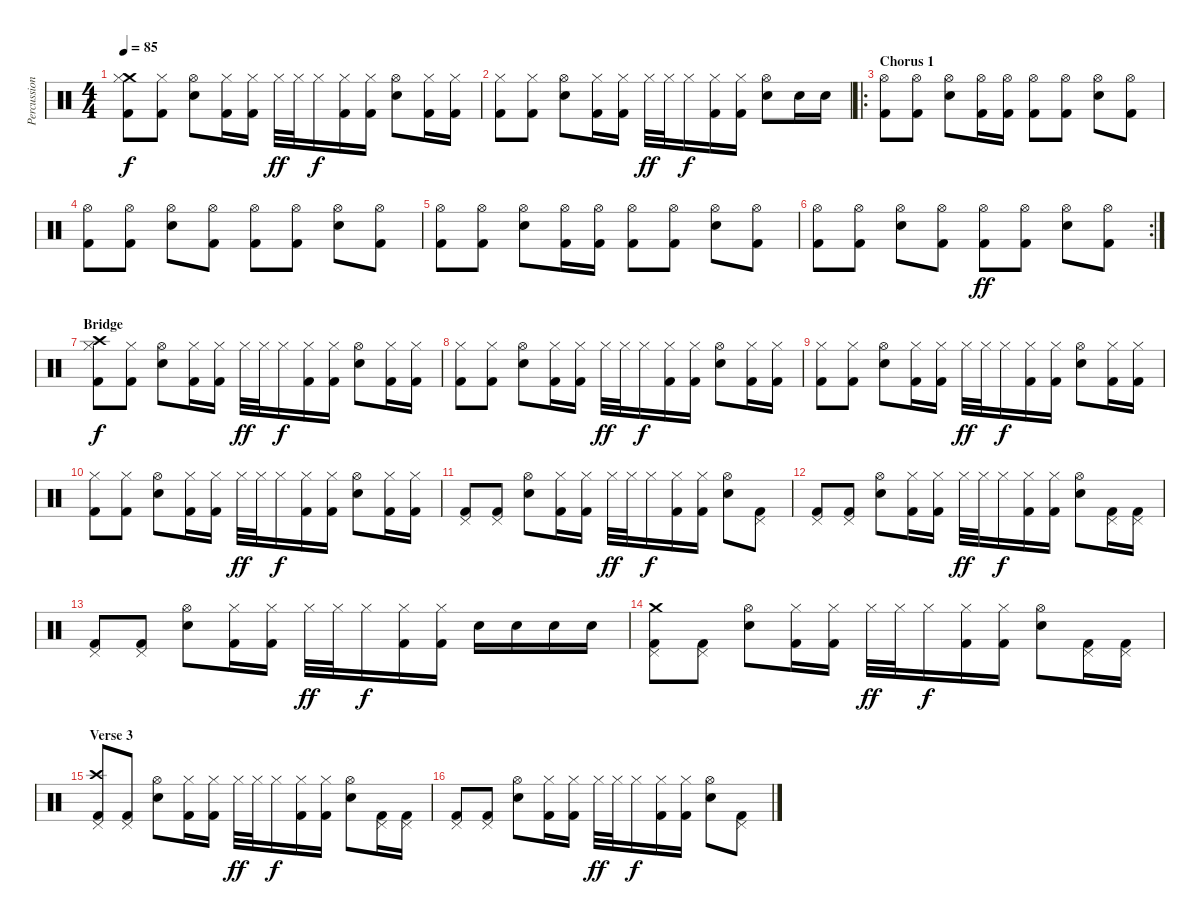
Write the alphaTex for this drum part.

\track ("Percussion" "Percussion") {instrument percussion}
\staff {score}
\articulation defaults
\ts (4 4)
\tempo 85
\clef neutral
\ks c
("Crash medium (hit)" "Hi-Hat (closed)" "Kick (hit) 2").8{dy f} ("Hi-Hat (closed)" "Kick (hit) 2").8 ("Hi-Hat (open)" "Electric Snare (hit)").8 ("Hi-Hat (closed)" "Kick (hit) 2").16 ("Hi-Hat (closed)" "Kick (hit) 2").16 "Hi-Hat (closed)".32{dy ff} "Hi-Hat (closed)".32 "Hi-Hat (closed)".16{dy f} ("Hi-Hat (closed)" "Kick (hit) 2").16 ("Hi-Hat (closed)" "Kick (hit) 2").16 ("Hi-Hat (open)" "Electric Snare (hit)").8 ("Hi-Hat (closed)" "Kick (hit) 2").16 ("Hi-Hat (closed)" "Kick (hit) 2").16 |
("Hi-Hat (closed)" "Kick (hit) 2").8 ("Hi-Hat (closed)" "Kick (hit) 2").8 ("Hi-Hat (open)" "Electric Snare (hit)").8 ("Hi-Hat (closed)" "Kick (hit) 2").16 ("Hi-Hat (closed)" "Kick (hit) 2").16 "Hi-Hat (closed)".32{dy ff} "Hi-Hat (closed)".32 "Hi-Hat (closed)".16{dy f} ("Hi-Hat (closed)" "Kick (hit) 2").16 ("Hi-Hat (closed)" "Kick (hit) 2").16 ("Hi-Hat (open)" "Electric Snare (hit)").8 "Electric Snare (hit)".16 "Electric Snare (hit)".16 |
\ro
\section ("" "Chorus 1")
("Hi-Hat (open)" "Kick (hit) 2").8 ("Hi-Hat (open)" "Kick (hit) 2").8 ("Hi-Hat (open)" "Electric Snare (hit)").8 ("Hi-Hat (open)" "Kick (hit) 2").16 ("Hi-Hat (open)" "Kick (hit) 2").16 ("Hi-Hat (open)" "Kick (hit) 2").8 ("Hi-Hat (open)" "Kick (hit) 2").8 ("Hi-Hat (open)" "Electric Snare (hit)").8 ("Hi-Hat (open)" "Kick (hit) 2").8 |
("Hi-Hat (open)" "Kick (hit) 2").8 ("Hi-Hat (open)" "Kick (hit) 2").8 ("Hi-Hat (open)" "Electric Snare (hit)").8 ("Hi-Hat (open)" "Kick (hit) 2").8 ("Hi-Hat (open)" "Kick (hit) 2").8 ("Hi-Hat (open)" "Kick (hit) 2").8 ("Hi-Hat (open)" "Electric Snare (hit)").8 ("Hi-Hat (open)" "Kick (hit) 2").8 |
("Hi-Hat (open)" "Kick (hit) 2").8 ("Hi-Hat (open)" "Kick (hit) 2").8 ("Hi-Hat (open)" "Electric Snare (hit)").8 ("Hi-Hat (open)" "Kick (hit) 2").16 ("Hi-Hat (open)" "Kick (hit) 2").16 ("Hi-Hat (open)" "Kick (hit) 2").8 ("Hi-Hat (open)" "Kick (hit) 2").8 ("Hi-Hat (open)" "Electric Snare (hit)").8 ("Hi-Hat (open)" "Kick (hit) 2").8 |
\rc 2
("Hi-Hat (open)" "Kick (hit) 2").8 ("Hi-Hat (open)" "Kick (hit) 2").8 ("Hi-Hat (open)" "Electric Snare (hit)").8 ("Hi-Hat (open)" "Kick (hit) 2").8 ("Hi-Hat (open)" "Kick (hit) 2").8{dy ff} ("Hi-Hat (open)" "Kick (hit) 2").8 ("Hi-Hat (open)" "Electric Snare (hit)").8 ("Hi-Hat (open)" "Kick (hit) 2").8 |
\section ("" "Bridge")
("Crash high (hit)" "Hi-Hat (closed)" "Kick (hit) 2").8{dy f} ("Hi-Hat (closed)" "Kick (hit) 2").8 ("Hi-Hat (open)" "Electric Snare (hit)").8 ("Hi-Hat (closed)" "Kick (hit) 2").16 ("Hi-Hat (closed)" "Kick (hit) 2").16 "Hi-Hat (closed)".32{dy ff} "Hi-Hat (closed)".32 "Hi-Hat (closed)".16{dy f} ("Hi-Hat (closed)" "Kick (hit) 2").16 ("Hi-Hat (closed)" "Kick (hit) 2").16 ("Hi-Hat (open)" "Electric Snare (hit)").8 ("Hi-Hat (closed)" "Kick (hit) 2").16 ("Hi-Hat (closed)" "Kick (hit) 2").16 |
("Hi-Hat (closed)" "Kick (hit) 2").8 ("Hi-Hat (closed)" "Kick (hit) 2").8 ("Hi-Hat (open)" "Electric Snare (hit)").8 ("Hi-Hat (closed)" "Kick (hit) 2").16 ("Hi-Hat (closed)" "Kick (hit) 2").16 "Hi-Hat (closed)".32{dy ff} "Hi-Hat (closed)".32 "Hi-Hat (closed)".16{dy f} ("Hi-Hat (closed)" "Kick (hit) 2").16 ("Hi-Hat (closed)" "Kick (hit) 2").16 ("Hi-Hat (open)" "Electric Snare (hit)").8 ("Hi-Hat (closed)" "Kick (hit) 2").16 ("Hi-Hat (closed)" "Kick (hit) 2").16 |
("Hi-Hat (closed)" "Kick (hit) 2").8 ("Hi-Hat (closed)" "Kick (hit) 2").8 ("Hi-Hat (open)" "Electric Snare (hit)").8 ("Hi-Hat (closed)" "Kick (hit) 2").16 ("Hi-Hat (closed)" "Kick (hit) 2").16 "Hi-Hat (closed)".32{dy ff} "Hi-Hat (closed)".32 "Hi-Hat (closed)".16{dy f} ("Hi-Hat (closed)" "Kick (hit) 2").16 ("Hi-Hat (closed)" "Kick (hit) 2").16 ("Hi-Hat (open)" "Electric Snare (hit)").8 ("Hi-Hat (closed)" "Kick (hit) 2").16 ("Hi-Hat (closed)" "Kick (hit) 2").16 |
("Hi-Hat (closed)" "Kick (hit) 2").8 ("Hi-Hat (closed)" "Kick (hit) 2").8 ("Hi-Hat (open)" "Electric Snare (hit)").8 ("Hi-Hat (closed)" "Kick (hit) 2").16 ("Hi-Hat (closed)" "Kick (hit) 2").16 "Hi-Hat (closed)".32{dy ff} "Hi-Hat (closed)".32 "Hi-Hat (closed)".16{dy f} ("Hi-Hat (closed)" "Kick (hit) 2").16 ("Hi-Hat (closed)" "Kick (hit) 2").16 ("Hi-Hat (open)" "Electric Snare (hit)").8 ("Hi-Hat (closed)" "Kick (hit) 2").16 ("Hi-Hat (closed)" "Kick (hit) 2").16 |
("Pedal Hi-Hat (hit)" "Kick (hit) 2").8 ("Pedal Hi-Hat (hit)" "Kick (hit) 2").8 ("Hi-Hat (open)" "Electric Snare (hit)").8 ("Hi-Hat (closed)" "Kick (hit) 2").16 ("Hi-Hat (closed)" "Kick (hit) 2").16 "Hi-Hat (closed)".32{dy ff} "Hi-Hat (closed)".32 "Hi-Hat (closed)".16{dy f} ("Hi-Hat (closed)" "Kick (hit) 2").16 ("Hi-Hat (closed)" "Kick (hit) 2").16 ("Hi-Hat (open)" "Electric Snare (hit)").8 ("Pedal Hi-Hat (hit)" "Kick (hit) 2").8 |
("Pedal Hi-Hat (hit)" "Kick (hit) 2").8 ("Pedal Hi-Hat (hit)" "Kick (hit) 2").8 ("Hi-Hat (open)" "Electric Snare (hit)").8 ("Hi-Hat (closed)" "Kick (hit) 2").16 ("Hi-Hat (closed)" "Kick (hit) 2").16 "Hi-Hat (closed)".32{dy ff} "Hi-Hat (closed)".32 "Hi-Hat (closed)".16{dy f} ("Hi-Hat (closed)" "Kick (hit) 2").16 ("Hi-Hat (closed)" "Kick (hit) 2").16 ("Hi-Hat (open)" "Electric Snare (hit)").8 ("Pedal Hi-Hat (hit)" "Kick (hit) 2").16 ("Pedal Hi-Hat (hit)" "Kick (hit) 2").16 |
("Pedal Hi-Hat (hit)" "Kick (hit) 2").8 ("Pedal Hi-Hat (hit)" "Kick (hit) 2").8 ("Hi-Hat (open)" "Electric Snare (hit)").8 ("Hi-Hat (closed)" "Kick (hit) 2").16 ("Hi-Hat (closed)" "Kick (hit) 2").16 "Hi-Hat (closed)".32{dy ff} "Hi-Hat (closed)".32 "Hi-Hat (closed)".16{dy f} ("Hi-Hat (closed)" "Kick (hit) 2").16 ("Hi-Hat (closed)" "Kick (hit) 2").16 "Electric Snare (hit)".16 "Electric Snare (hit)".16 "Electric Snare (hit)".16 "Electric Snare (hit)".16 |
("Crash medium (hit)" "Pedal Hi-Hat (hit)" "Kick (hit) 2").8 ("Pedal Hi-Hat (hit)" "Kick (hit) 2").8 ("Hi-Hat (open)" "Electric Snare (hit)").8 ("Hi-Hat (closed)" "Kick (hit) 2").16 ("Hi-Hat (closed)" "Kick (hit) 2").16 "Hi-Hat (closed)".32{dy ff} "Hi-Hat (closed)".32 "Hi-Hat (closed)".16{dy f} ("Hi-Hat (closed)" "Kick (hit) 2").16 ("Hi-Hat (closed)" "Kick (hit) 2").16 ("Hi-Hat (open)" "Electric Snare (hit)").8 ("Pedal Hi-Hat (hit)" "Kick (hit) 2").16 ("Pedal Hi-Hat (hit)" "Kick (hit) 2").16 |
\section ("" "Verse 3")
("Crash high (hit)" "Pedal Hi-Hat (hit)" "Kick (hit) 2").8 ("Pedal Hi-Hat (hit)" "Kick (hit) 2").8 ("Hi-Hat (open)" "Electric Snare (hit)").8 ("Hi-Hat (closed)" "Kick (hit) 2").16 ("Hi-Hat (closed)" "Kick (hit) 2").16 "Hi-Hat (closed)".32{dy ff} "Hi-Hat (closed)".32 "Hi-Hat (closed)".16{dy f} ("Hi-Hat (closed)" "Kick (hit) 2").16 ("Hi-Hat (closed)" "Kick (hit) 2").16 ("Hi-Hat (open)" "Electric Snare (hit)").8 ("Pedal Hi-Hat (hit)" "Kick (hit) 2").16 ("Pedal Hi-Hat (hit)" "Kick (hit) 2").16 |
("Pedal Hi-Hat (hit)" "Kick (hit) 2").8 ("Pedal Hi-Hat (hit)" "Kick (hit) 2").8 ("Hi-Hat (open)" "Electric Snare (hit)").8 ("Hi-Hat (closed)" "Kick (hit) 2").16 ("Hi-Hat (closed)" "Kick (hit) 2").16 "Hi-Hat (closed)".32{dy ff} "Hi-Hat (closed)".32 "Hi-Hat (closed)".16{dy f} ("Hi-Hat (closed)" "Kick (hit) 2").16 ("Hi-Hat (closed)" "Kick (hit) 2").16 ("Hi-Hat (open)" "Electric Snare (hit)").8 ("Pedal Hi-Hat (hit)" "Kick (hit) 2").8
